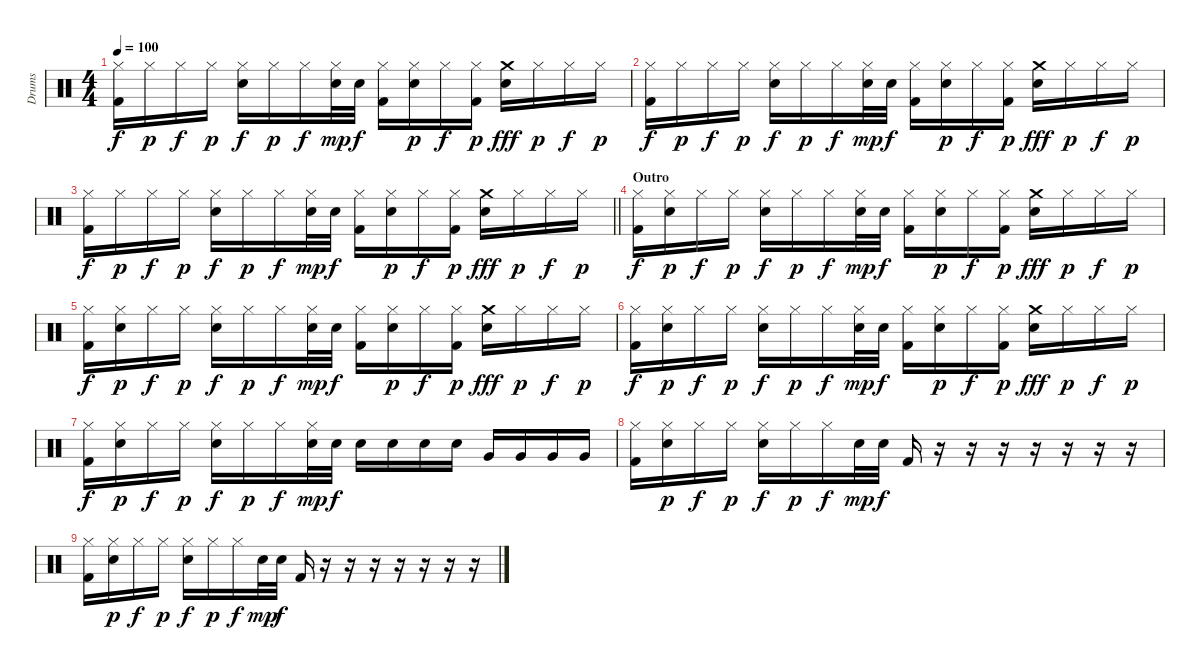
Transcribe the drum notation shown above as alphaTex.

\track ("Drums" "Drums") {instrument percussion}
\staff {score}
\articulation defaults
\ts (4 4)
\tempo 100
\clef neutral
\ks c
("Hi-Hat (closed)" "Kick (hit) 2").16{dy f} "Hi-Hat (closed)".16{dy p} "Hi-Hat (closed)".16{dy f} "Hi-Hat (closed)".16{dy p} ("Hi-Hat (closed)" "Electric Snare (hit)").16{dy f} "Hi-Hat (closed)".16{dy p} "Hi-Hat (closed)".16{dy f} ("Hi-Hat (closed)" "Electric Snare (hit)").32{dy mp} "Electric Snare (hit)".32{dy f} ("Hi-Hat (closed)" "Kick (hit) 2").16 ("Hi-Hat (closed)" "Electric Snare (hit)").16{dy p} "Hi-Hat (closed)".16{dy f} ("Hi-Hat (closed)" "Kick (hit) 2").16{dy p} ("Crash medium (hit)" "Electric Snare (hit)").16{dy fff} "Hi-Hat (closed)".16{dy p} "Hi-Hat (closed)".16{dy f} "Hi-Hat (closed)".16{dy p} |
("Hi-Hat (closed)" "Kick (hit) 2").16{dy f} "Hi-Hat (closed)".16{dy p} "Hi-Hat (closed)".16{dy f} "Hi-Hat (closed)".16{dy p} ("Hi-Hat (closed)" "Electric Snare (hit)").16{dy f} "Hi-Hat (closed)".16{dy p} "Hi-Hat (closed)".16{dy f} ("Hi-Hat (closed)" "Electric Snare (hit)").32{dy mp} "Electric Snare (hit)".32{dy f} ("Hi-Hat (closed)" "Kick (hit) 2").16 ("Hi-Hat (closed)" "Electric Snare (hit)").16{dy p} "Hi-Hat (closed)".16{dy f} ("Hi-Hat (closed)" "Kick (hit) 2").16{dy p} ("Crash medium (hit)" "Electric Snare (hit)").16{dy fff} "Hi-Hat (closed)".16{dy p} "Hi-Hat (closed)".16{dy f} "Hi-Hat (closed)".16{dy p} |
\barLineRight lightlight
("Hi-Hat (closed)" "Kick (hit) 2").16{dy f} "Hi-Hat (closed)".16{dy p} "Hi-Hat (closed)".16{dy f} "Hi-Hat (closed)".16{dy p} ("Hi-Hat (closed)" "Electric Snare (hit)").16{dy f} "Hi-Hat (closed)".16{dy p} "Hi-Hat (closed)".16{dy f} ("Hi-Hat (closed)" "Electric Snare (hit)").32{dy mp} "Electric Snare (hit)".32{dy f} ("Hi-Hat (closed)" "Kick (hit) 2").16 ("Hi-Hat (closed)" "Electric Snare (hit)").16{dy p} "Hi-Hat (closed)".16{dy f} ("Hi-Hat (closed)" "Kick (hit) 2").16{dy p} ("Crash medium (hit)" "Electric Snare (hit)").16{dy fff} "Hi-Hat (closed)".16{dy p} "Hi-Hat (closed)".16{dy f} "Hi-Hat (closed)".16{dy p} |
\section ("" "Outro")
("Hi-Hat (closed)" "Kick (hit) 2").16{dy f} ("Hi-Hat (closed)" "Electric Snare (hit)").16{dy p} "Hi-Hat (closed)".16{dy f} "Hi-Hat (closed)".16{dy p} ("Hi-Hat (closed)" "Electric Snare (hit)").16{dy f} "Hi-Hat (closed)".16{dy p} "Hi-Hat (closed)".16{dy f} ("Hi-Hat (closed)" "Electric Snare (hit)").32{dy mp} "Electric Snare (hit)".32{dy f} ("Hi-Hat (closed)" "Kick (hit) 2").16 ("Hi-Hat (closed)" "Electric Snare (hit)").16{dy p} "Hi-Hat (closed)".16{dy f} ("Hi-Hat (closed)" "Kick (hit) 2").16{dy p} ("Crash medium (hit)" "Electric Snare (hit)").16{dy fff} "Hi-Hat (closed)".16{dy p} "Hi-Hat (closed)".16{dy f} "Hi-Hat (closed)".16{dy p} |
("Hi-Hat (closed)" "Kick (hit) 2").16{dy f} ("Hi-Hat (closed)" "Electric Snare (hit)").16{dy p} "Hi-Hat (closed)".16{dy f} "Hi-Hat (closed)".16{dy p} ("Hi-Hat (closed)" "Electric Snare (hit)").16{dy f} "Hi-Hat (closed)".16{dy p} "Hi-Hat (closed)".16{dy f} ("Hi-Hat (closed)" "Electric Snare (hit)").32{dy mp} "Electric Snare (hit)".32{dy f} ("Hi-Hat (closed)" "Kick (hit) 2").16 ("Hi-Hat (closed)" "Electric Snare (hit)").16{dy p} "Hi-Hat (closed)".16{dy f} ("Hi-Hat (closed)" "Kick (hit) 2").16{dy p} ("Crash medium (hit)" "Electric Snare (hit)").16{dy fff} "Hi-Hat (closed)".16{dy p} "Hi-Hat (closed)".16{dy f} "Hi-Hat (closed)".16{dy p} |
("Hi-Hat (closed)" "Kick (hit) 2").16{dy f} ("Hi-Hat (closed)" "Electric Snare (hit)").16{dy p} "Hi-Hat (closed)".16{dy f} "Hi-Hat (closed)".16{dy p} ("Hi-Hat (closed)" "Electric Snare (hit)").16{dy f} "Hi-Hat (closed)".16{dy p} "Hi-Hat (closed)".16{dy f} ("Hi-Hat (closed)" "Electric Snare (hit)").32{dy mp} "Electric Snare (hit)".32{dy f} ("Hi-Hat (closed)" "Kick (hit) 2").16 ("Hi-Hat (closed)" "Electric Snare (hit)").16{dy p} "Hi-Hat (closed)".16{dy f} ("Hi-Hat (closed)" "Kick (hit) 2").16{dy p} ("Crash medium (hit)" "Electric Snare (hit)").16{dy fff} "Hi-Hat (closed)".16{dy p} "Hi-Hat (closed)".16{dy f} "Hi-Hat (closed)".16{dy p} |
("Hi-Hat (closed)" "Kick (hit) 2").16{dy f} ("Hi-Hat (closed)" "Electric Snare (hit)").16{dy p} "Hi-Hat (closed)".16{dy f} "Hi-Hat (closed)".16{dy p} ("Hi-Hat (closed)" "Electric Snare (hit)").16{dy f} "Hi-Hat (closed)".16{dy p} "Hi-Hat (closed)".16{dy f} ("Hi-Hat (closed)" "Snare (hit) 2").32{dy mp} "Snare (hit) 2".32{dy f} "Snare (hit) 2".16 "Snare (hit) 2".16 "Snare (hit) 2".16 "Snare (hit) 2".16 "Very Low Tom (hit)".16 "Very Low Tom (hit)".16 "Very Low Tom (hit)".16 "Very Low Tom (hit)".16 |
("Hi-Hat (closed)" "Kick (hit) 2").16 ("Hi-Hat (closed)" "Electric Snare (hit)").16{dy p} "Hi-Hat (closed)".16{dy f} "Hi-Hat (closed)".16{dy p} ("Hi-Hat (closed)" "Electric Snare (hit)").16{dy f} "Hi-Hat (closed)".16{dy p} "Hi-Hat (closed)".16{dy f} "Electric Snare (hit)".32{dy mp} "Electric Snare (hit)".32{dy f} "Kick (hit) 2".16 r.16 r.16 r.16 r.16 r.16 r.16 r.16 |
("Hi-Hat (closed)" "Kick (hit) 2").16 ("Hi-Hat (closed)" "Electric Snare (hit)").16{dy p} "Hi-Hat (closed)".16{dy f} "Hi-Hat (closed)".16{dy p} ("Hi-Hat (closed)" "Electric Snare (hit)").16{dy f} "Hi-Hat (closed)".16{dy p} "Hi-Hat (closed)".16{dy f} "Electric Snare (hit)".32{dy mp} "Electric Snare (hit)".32{dy f} "Kick (hit) 2".16 r.16 r.16 r.16 r.16 r.16 r.16 r.16
